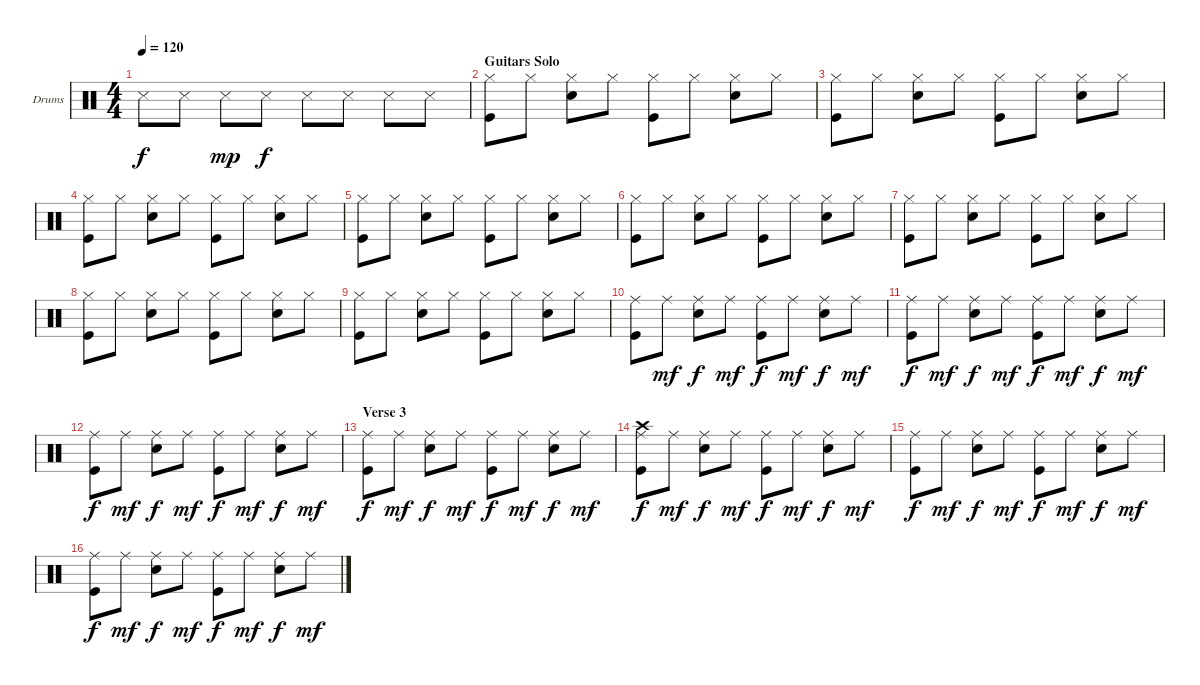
\bracketExtendMode groupsimilarinstruments
\firstSystemTrackNameOrientation horizontal
\otherSystemsTrackNameOrientation horizontal
\chordDiagramsInScore
\track ("Drumkit" "Drums") {instrument percussion}
\staff {score}
\articulation defaults
\ts (4 4)
\tempo 120
\clef neutral
\ks c "Snare (side stick) 3".8{dy f} "Snare (side stick) 3".8 "Snare (side stick) 3".8{dy mp} "Snare (side stick) 3".8{dy f} "Snare (side stick) 3".8 "Snare (side stick) 3".8 "Snare (side stick) 3".8 "Snare (side stick) 3".8
|
\section ("" "Guitars Solo")
("Hi-Hat (closed)" "Kick (hit)").8 "Hi-Hat (closed)".8 ("Hi-Hat (closed)" "Snare (hit) 2").8 "Hi-Hat (closed)".8 ("Hi-Hat (closed)" "Kick (hit)").8 "Hi-Hat (closed)".8 ("Hi-Hat (closed)" "Snare (hit) 2").8 "Hi-Hat (closed)".8 |
("Hi-Hat (closed)" "Kick (hit)").8 "Hi-Hat (closed)".8 ("Hi-Hat (closed)" "Snare (hit) 2").8 "Hi-Hat (closed)".8 ("Hi-Hat (closed)" "Kick (hit)").8 "Hi-Hat (closed)".8 ("Hi-Hat (closed)" "Snare (hit) 2").8 "Hi-Hat (closed)".8 |
("Hi-Hat (closed)" "Kick (hit)").8 "Hi-Hat (closed)".8 ("Hi-Hat (closed)" "Snare (hit) 2").8 "Hi-Hat (closed)".8 ("Hi-Hat (closed)" "Kick (hit)").8 "Hi-Hat (closed)".8 ("Hi-Hat (closed)" "Snare (hit) 2").8 "Hi-Hat (closed)".8 |
("Hi-Hat (closed)" "Kick (hit)").8 "Hi-Hat (closed)".8 ("Hi-Hat (closed)" "Snare (hit) 2").8 "Hi-Hat (closed)".8 ("Hi-Hat (closed)" "Kick (hit)").8 "Hi-Hat (closed)".8 ("Hi-Hat (closed)" "Snare (hit) 2").8 "Hi-Hat (closed)".8 |
("Hi-Hat (closed)" "Kick (hit)").8 "Hi-Hat (closed)".8 ("Hi-Hat (closed)" "Snare (hit) 2").8 "Hi-Hat (closed)".8 ("Hi-Hat (closed)" "Kick (hit)").8 "Hi-Hat (closed)".8 ("Hi-Hat (closed)" "Snare (hit) 2").8 "Hi-Hat (closed)".8 |
("Hi-Hat (closed)" "Kick (hit)").8 "Hi-Hat (closed)".8 ("Hi-Hat (closed)" "Snare (hit) 2").8 "Hi-Hat (closed)".8 ("Hi-Hat (closed)" "Kick (hit)").8 "Hi-Hat (closed)".8 ("Hi-Hat (closed)" "Snare (hit) 2").8 "Hi-Hat (closed)".8 |
("Hi-Hat (closed)" "Kick (hit)").8 "Hi-Hat (closed)".8 ("Hi-Hat (closed)" "Snare (hit) 2").8 "Hi-Hat (closed)".8 ("Hi-Hat (closed)" "Kick (hit)").8 "Hi-Hat (closed)".8 ("Hi-Hat (closed)" "Snare (hit) 2").8 "Hi-Hat (closed)".8 |
("Hi-Hat (closed)" "Kick (hit)").8 "Hi-Hat (closed)".8 ("Hi-Hat (closed)" "Snare (hit) 2").8 "Hi-Hat (closed)".8 ("Hi-Hat (closed)" "Kick (hit)").8 "Hi-Hat (closed)".8 ("Hi-Hat (closed)" "Snare (hit) 2").8 "Hi-Hat (closed)".8 |
("Ride (middle)" "Kick (hit)").8 "Ride (middle)".8{dy mf} ("Ride (middle)" "Snare (hit) 2").8{dy f} "Ride (middle)".8{dy mf} ("Ride (middle)" "Kick (hit)").8{dy f} "Ride (middle)".8{dy mf} ("Ride (middle)" "Snare (hit) 2").8{dy f} "Ride (middle)".8{dy mf} |
("Ride (middle)" "Kick (hit)").8{dy f} "Ride (middle)".8{dy mf} ("Ride (middle)" "Snare (hit) 2").8{dy f} "Ride (middle)".8{dy mf} ("Ride (middle)" "Kick (hit)").8{dy f} "Ride (middle)".8{dy mf} ("Ride (middle)" "Snare (hit) 2").8{dy f} "Ride (middle)".8{dy mf} |
("Ride (middle)" "Kick (hit)").8{dy f} "Ride (middle)".8{dy mf} ("Ride (middle)" "Snare (hit) 2").8{dy f} "Ride (middle)".8{dy mf} ("Ride (middle)" "Kick (hit)").8{dy f} "Ride (middle)".8{dy mf} ("Ride (middle)" "Snare (hit) 2").8{dy f} "Ride (middle)".8{dy mf} |
\section ("" "Verse 3")
("Ride (middle)" "Kick (hit)").8{dy f} "Ride (middle)".8{dy mf} ("Ride (middle)" "Snare (hit) 2").8{dy f} "Ride (middle)".8{dy mf} ("Ride (middle)" "Kick (hit)").8{dy f} "Ride (middle)".8{dy mf} ("Ride (middle)" "Snare (hit) 2").8{dy f} "Ride (middle)".8{dy mf} |
("Ride (middle)" "Crash high (hit)" "Kick (hit)").8{dy f} "Ride (middle)".8{dy mf} ("Ride (middle)" "Snare (hit) 2").8{dy f} "Ride (middle)".8{dy mf} ("Ride (middle)" "Kick (hit)").8{dy f} "Ride (middle)".8{dy mf} ("Ride (middle)" "Snare (hit) 2").8{dy f} "Ride (middle)".8{dy mf} |
("Ride (middle)" "Kick (hit)").8{dy f} "Ride (middle)".8{dy mf} ("Ride (middle)" "Snare (hit) 2").8{dy f} "Ride (middle)".8{dy mf} ("Ride (middle)" "Kick (hit)").8{dy f} "Ride (middle)".8{dy mf} ("Ride (middle)" "Snare (hit) 2").8{dy f} "Ride (middle)".8{dy mf} |
("Ride (middle)" "Kick (hit)").8{dy f} "Ride (middle)".8{dy mf} ("Ride (middle)" "Snare (hit) 2").8{dy f} "Ride (middle)".8{dy mf} ("Ride (middle)" "Kick (hit)").8{dy f} "Ride (middle)".8{dy mf} ("Ride (middle)" "Snare (hit) 2").8{dy f} "Ride (middle)".8{dy mf}
